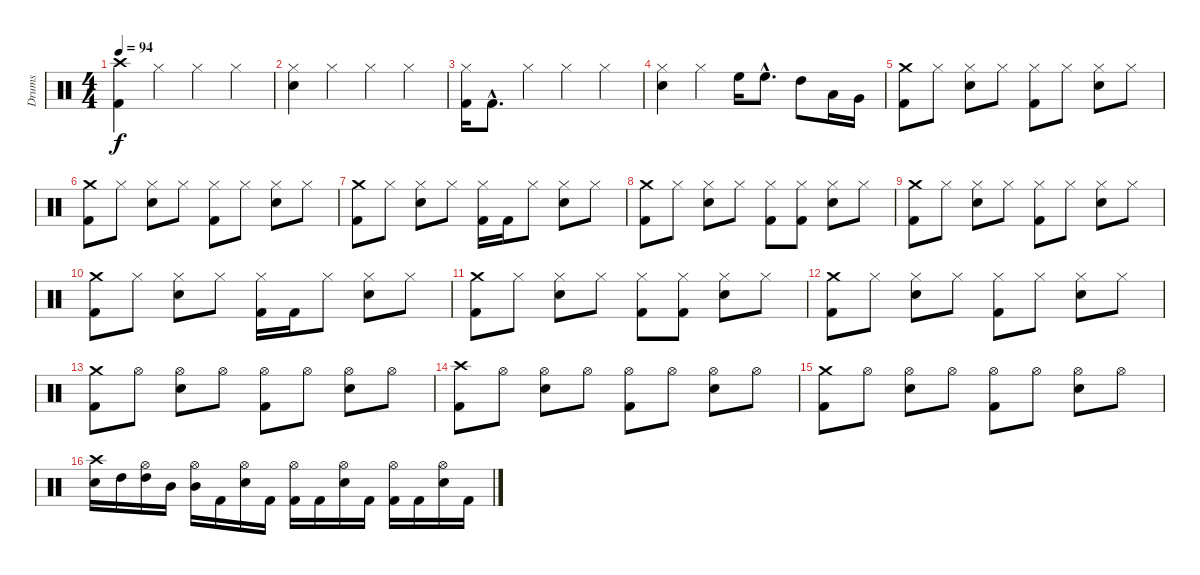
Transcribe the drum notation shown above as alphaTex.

\track ("Drums" "Drums") {instrument percussion}
\staff {score}
\articulation defaults
\ts (4 4)
\tempo 94
\clef neutral
\ks c
("Crash high (hit)" "Kick (hit) 2").4{dy f} "Hi-Hat (closed)".4 "Hi-Hat (closed)".4 "Hi-Hat (closed)".4 |
("Hi-Hat (closed)" "Electric Snare (hit)").4 "Hi-Hat (closed)".4 "Hi-Hat (closed)".4 "Hi-Hat (closed)".4 |
("Hi-Hat (closed)" "Kick (hit) 2").16 "Kick (hit) 2"{hac}.8{d} "Hi-Hat (closed)".4 "Hi-Hat (closed)".4 "Hi-Hat (closed)".4 |
("Hi-Hat (closed)" "Electric Snare (hit)").4 "Hi-Hat (closed)".4 "High Floor Tom (hit)".16 "High Floor Tom (hit)"{hac}.8{d} "High Tom (hit)".8 "Low Tom (hit)".16 "Very Low Tom (hit)".16 |
("Crash medium (hit)" "Kick (hit) 2").8 "Hi-Hat (closed)".8 ("Hi-Hat (closed)" "Electric Snare (hit)").8 "Hi-Hat (closed)".8 ("Hi-Hat (closed)" "Kick (hit) 2").8 "Hi-Hat (closed)".8 ("Hi-Hat (closed)" "Electric Snare (hit)").8 "Hi-Hat (closed)".8 |
("Crash medium (hit)" "Kick (hit) 2").8 "Hi-Hat (closed)".8 ("Hi-Hat (closed)" "Electric Snare (hit)").8 "Hi-Hat (closed)".8 ("Hi-Hat (closed)" "Kick (hit) 2").8 "Hi-Hat (closed)".8 ("Hi-Hat (closed)" "Electric Snare (hit)").8 "Hi-Hat (closed)".8 |
("Crash medium (hit)" "Kick (hit) 2").8 "Hi-Hat (closed)".8 ("Hi-Hat (closed)" "Electric Snare (hit)").8 "Hi-Hat (closed)".8 ("Hi-Hat (closed)" "Kick (hit) 2").16 "Kick (hit) 2".16 "Hi-Hat (closed)".8 ("Hi-Hat (closed)" "Electric Snare (hit)").8 "Hi-Hat (closed)".8 |
("Crash medium (hit)" "Kick (hit) 2").8 "Hi-Hat (closed)".8 ("Hi-Hat (closed)" "Electric Snare (hit)").8 "Hi-Hat (closed)".8 ("Hi-Hat (closed)" "Kick (hit) 2").8 ("Hi-Hat (closed)" "Kick (hit) 2").8 ("Hi-Hat (closed)" "Electric Snare (hit)").8 "Hi-Hat (closed)".8 |
("Crash medium (hit)" "Kick (hit) 2").8 "Hi-Hat (closed)".8 ("Hi-Hat (closed)" "Electric Snare (hit)").8 "Hi-Hat (closed)".8 ("Hi-Hat (closed)" "Kick (hit) 2").8 "Hi-Hat (closed)".8 ("Hi-Hat (closed)" "Electric Snare (hit)").8 "Hi-Hat (closed)".8 |
("Crash medium (hit)" "Kick (hit) 2").8 "Hi-Hat (closed)".8 ("Hi-Hat (closed)" "Electric Snare (hit)").8 "Hi-Hat (closed)".8 ("Hi-Hat (closed)" "Kick (hit) 2").16 "Kick (hit) 2".16 "Hi-Hat (closed)".8 ("Hi-Hat (closed)" "Electric Snare (hit)").8 "Hi-Hat (closed)".8 |
("Crash medium (hit)" "Kick (hit) 2").8 "Hi-Hat (closed)".8 ("Hi-Hat (closed)" "Electric Snare (hit)").8 "Hi-Hat (closed)".8 ("Hi-Hat (closed)" "Kick (hit) 2").8 ("Hi-Hat (closed)" "Kick (hit) 2").8 ("Hi-Hat (closed)" "Electric Snare (hit)").8 "Hi-Hat (closed)".8 |
("Crash medium (hit)" "Kick (hit) 2").8 "Hi-Hat (closed)".8 ("Hi-Hat (closed)" "Electric Snare (hit)").8 "Hi-Hat (closed)".8 ("Hi-Hat (closed)" "Kick (hit) 2").8 "Hi-Hat (closed)".8 ("Hi-Hat (closed)" "Electric Snare (hit)").8 "Hi-Hat (closed)".8 |
("Crash medium (hit)" "Kick (hit) 2").8 "Hi-Hat (open)".8 ("Hi-Hat (open)" "Electric Snare (hit)").8 "Hi-Hat (open)".8 ("Hi-Hat (open)" "Kick (hit) 2").8 "Hi-Hat (open)".8 ("Hi-Hat (open)" "Electric Snare (hit)").8 "Hi-Hat (open)".8 |
("Crash high (hit)" "Kick (hit) 2").8 "Hi-Hat (open)".8 ("Hi-Hat (open)" "Electric Snare (hit)").8 "Hi-Hat (open)".8 ("Hi-Hat (open)" "Kick (hit) 2").8 "Hi-Hat (open)".8 ("Hi-Hat (open)" "Electric Snare (hit)").8 "Hi-Hat (open)".8 |
("Crash medium (hit)" "Kick (hit) 2").8 "Hi-Hat (open)".8 ("Hi-Hat (open)" "Electric Snare (hit)").8 "Hi-Hat (open)".8 ("Hi-Hat (open)" "Kick (hit) 2").8 "Hi-Hat (open)".8 ("Hi-Hat (open)" "Electric Snare (hit)").8 "Hi-Hat (open)".8 |
("Crash high (hit)" "Electric Snare (hit)").16 "High Tom (hit)".16 ("Hi-Hat (open)" "High Tom (hit)").16 "Mid Tom (hit)".16 ("Hi-Hat (open)" "Mid Tom (hit)").16 "Kick (hit) 2".16 ("Hi-Hat (open)" "Electric Snare (hit)").16 "Kick (hit) 2".16 ("Hi-Hat (open)" "Kick (hit) 2").16 "Kick (hit) 2".16 ("Hi-Hat (open)" "Electric Snare (hit)").16 "Kick (hit) 2".16 ("Hi-Hat (open)" "Kick (hit) 2").16 "Kick (hit) 2".16 ("Hi-Hat (open)" "Electric Snare (hit)").16 "Kick (hit) 2".16
